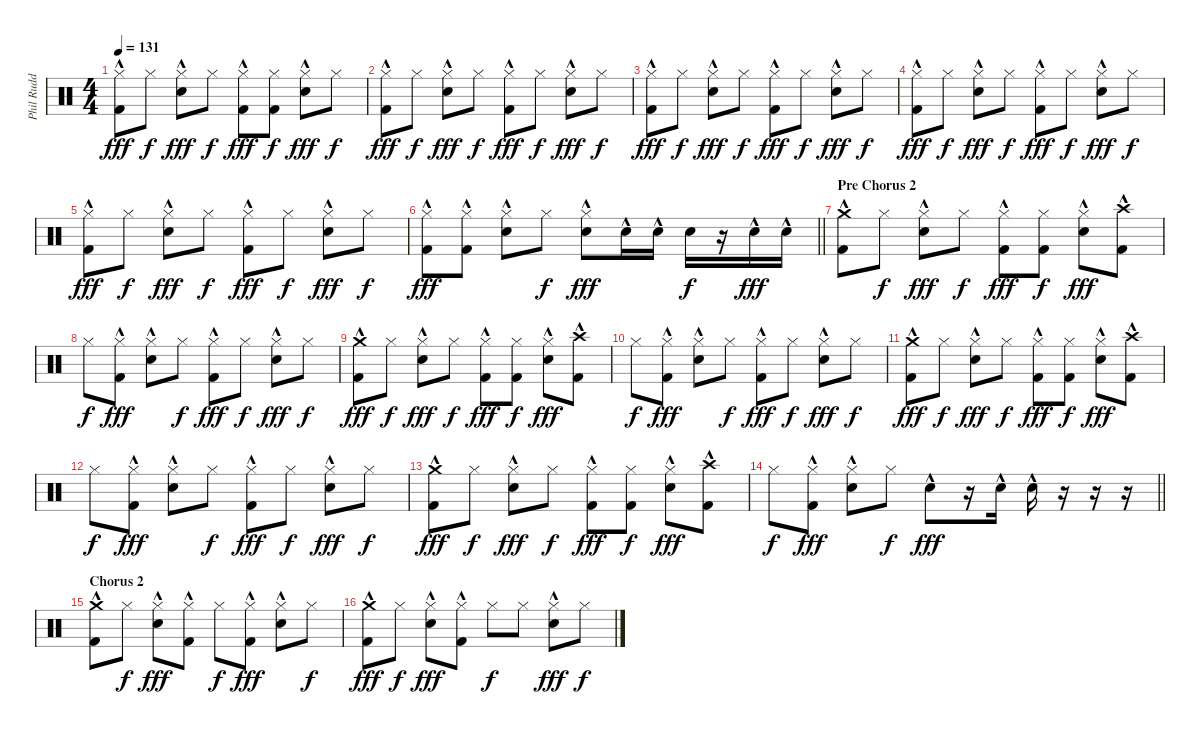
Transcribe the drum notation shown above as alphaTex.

\track ("Phil Rudd" "Phil Rudd") {instrument percussion}
\staff {score}
\articulation defaults
\ts (4 4)
\tempo 131
\clef neutral
\ks c
("Hi-Hat (closed)" "Kick (hit) 2"{hac}).8{dy fff} "Hi-Hat (closed)".8{dy f} ("Hi-Hat (closed)" "Electric Snare (hit)"{hac}).8{dy fff} "Hi-Hat (closed)".8{dy f} ("Hi-Hat (closed)" "Kick (hit) 2"{hac}).8{dy fff} ("Hi-Hat (closed)" "Kick (hit) 2").8{dy f} ("Hi-Hat (closed)" "Electric Snare (hit)"{hac}).8{dy fff} "Hi-Hat (closed)".8{dy f} |
("Hi-Hat (closed)" "Kick (hit) 2"{hac}).8{dy fff} "Hi-Hat (closed)".8{dy f} ("Hi-Hat (closed)" "Electric Snare (hit)"{hac}).8{dy fff} "Hi-Hat (closed)".8{dy f} ("Hi-Hat (closed)" "Kick (hit) 2"{hac}).8{dy fff} "Hi-Hat (closed)".8{dy f} ("Hi-Hat (closed)" "Electric Snare (hit)"{hac}).8{dy fff} "Hi-Hat (closed)".8{dy f} |
("Hi-Hat (closed)" "Kick (hit) 2"{hac}).8{dy fff} "Hi-Hat (closed)".8{dy f} ("Hi-Hat (closed)" "Electric Snare (hit)"{hac}).8{dy fff} "Hi-Hat (closed)".8{dy f} ("Hi-Hat (closed)" "Kick (hit) 2"{hac}).8{dy fff} "Hi-Hat (closed)".8{dy f} ("Hi-Hat (closed)" "Electric Snare (hit)"{hac}).8{dy fff} "Hi-Hat (closed)".8{dy f} |
("Hi-Hat (closed)" "Kick (hit) 2"{hac}).8{dy fff} "Hi-Hat (closed)".8{dy f} ("Hi-Hat (closed)" "Electric Snare (hit)"{hac}).8{dy fff} "Hi-Hat (closed)".8{dy f} ("Hi-Hat (closed)" "Kick (hit) 2"{hac}).8{dy fff} "Hi-Hat (closed)".8{dy f} ("Hi-Hat (closed)" "Electric Snare (hit)"{hac}).8{dy fff} "Hi-Hat (closed)".8{dy f} |
("Hi-Hat (closed)" "Kick (hit) 2"{hac}).8{dy fff} "Hi-Hat (closed)".8{dy f} ("Hi-Hat (closed)" "Electric Snare (hit)"{hac}).8{dy fff} "Hi-Hat (closed)".8{dy f} ("Hi-Hat (closed)" "Kick (hit) 2"{hac}).8{dy fff} "Hi-Hat (closed)".8{dy f} ("Hi-Hat (closed)" "Electric Snare (hit)"{hac}).8{dy fff} "Hi-Hat (closed)".8{dy f} |
\barLineRight lightlight
("Hi-Hat (closed)" "Kick (hit) 2"{hac}).8{dy fff} ("Hi-Hat (closed)" "Kick (hit) 2"{hac}).8 ("Hi-Hat (closed)" "Electric Snare (hit)"{hac}).8 "Hi-Hat (closed)".8{dy f} ("Hi-Hat (closed)" "Electric Snare (hit)"{hac}).8{dy fff} "Electric Snare (hit)"{hac}.16 "Electric Snare (hit)"{hac}.16 "Electric Snare (hit)".16{dy f} r.16 "Electric Snare (hit)"{hac}.16{dy fff} "Electric Snare (hit)"{hac}.16 |
\section ("" "Pre Chorus 2 ")
("Crash medium (hit)" "Kick (hit) 2"{hac}).8 "Hi-Hat (closed)".8{dy f} ("Hi-Hat (closed)" "Electric Snare (hit)"{hac}).8{dy fff} "Hi-Hat (closed)".8{dy f} ("Hi-Hat (closed)" "Kick (hit) 2"{hac}).8{dy fff} ("Hi-Hat (closed)" "Kick (hit) 2").8{dy f} ("Hi-Hat (closed)" "Electric Snare (hit)"{hac}).8{dy fff} ("Crash high (hit)" "Kick (hit) 2"{hac}).8 |
"Hi-Hat (closed)".8{dy f} ("Hi-Hat (closed)" "Kick (hit) 2"{hac}).8{dy fff} ("Hi-Hat (closed)" "Electric Snare (hit)"{hac}).8 "Hi-Hat (closed)".8{dy f} ("Hi-Hat (closed)" "Kick (hit) 2"{hac}).8{dy fff} "Hi-Hat (closed)".8{dy f} ("Hi-Hat (closed)" "Electric Snare (hit)"{hac}).8{dy fff} "Hi-Hat (closed)".8{dy f} |
("Crash medium (hit)" "Kick (hit) 2"{hac}).8{dy fff} "Hi-Hat (closed)".8{dy f} ("Hi-Hat (closed)" "Electric Snare (hit)"{hac}).8{dy fff} "Hi-Hat (closed)".8{dy f} ("Hi-Hat (closed)" "Kick (hit) 2"{hac}).8{dy fff} ("Hi-Hat (closed)" "Kick (hit) 2").8{dy f} ("Hi-Hat (closed)" "Electric Snare (hit)"{hac}).8{dy fff} ("Crash high (hit)" "Kick (hit) 2"{hac}).8 |
"Hi-Hat (closed)".8{dy f} ("Hi-Hat (closed)" "Kick (hit) 2"{hac}).8{dy fff} ("Hi-Hat (closed)" "Electric Snare (hit)"{hac}).8 "Hi-Hat (closed)".8{dy f} ("Hi-Hat (closed)" "Kick (hit) 2"{hac}).8{dy fff} "Hi-Hat (closed)".8{dy f} ("Hi-Hat (closed)" "Electric Snare (hit)"{hac}).8{dy fff} "Hi-Hat (closed)".8{dy f} |
("Crash medium (hit)" "Kick (hit) 2"{hac}).8{dy fff} "Hi-Hat (closed)".8{dy f} ("Hi-Hat (closed)" "Electric Snare (hit)"{hac}).8{dy fff} "Hi-Hat (closed)".8{dy f} ("Hi-Hat (closed)" "Kick (hit) 2"{hac}).8{dy fff} ("Hi-Hat (closed)" "Kick (hit) 2").8{dy f} ("Hi-Hat (closed)" "Electric Snare (hit)"{hac}).8{dy fff} ("Crash high (hit)" "Kick (hit) 2"{hac}).8 |
"Hi-Hat (closed)".8{dy f} ("Hi-Hat (closed)" "Kick (hit) 2"{hac}).8{dy fff} ("Hi-Hat (closed)" "Electric Snare (hit)"{hac}).8 "Hi-Hat (closed)".8{dy f} ("Hi-Hat (closed)" "Kick (hit) 2"{hac}).8{dy fff} "Hi-Hat (closed)".8{dy f} ("Hi-Hat (closed)" "Electric Snare (hit)"{hac}).8{dy fff} "Hi-Hat (closed)".8{dy f} |
("Crash medium (hit)" "Kick (hit) 2"{hac}).8{dy fff} "Hi-Hat (closed)".8{dy f} ("Hi-Hat (closed)" "Electric Snare (hit)"{hac}).8{dy fff} "Hi-Hat (closed)".8{dy f} ("Hi-Hat (closed)" "Kick (hit) 2"{hac}).8{dy fff} ("Hi-Hat (closed)" "Kick (hit) 2").8{dy f} ("Hi-Hat (closed)" "Electric Snare (hit)"{hac}).8{dy fff} ("Crash high (hit)" "Kick (hit) 2"{hac}).8 |
\barLineRight lightlight "Hi-Hat (closed)".8{dy f}
("Hi-Hat (closed)" "Kick (hit) 2"{hac}).8{dy fff} ("Hi-Hat (closed)" "Electric Snare (hit)"{hac}).8 "Hi-Hat (closed)".8{dy f} "Electric Snare (hit)"{hac}.8{dy fff} r.16 "Electric Snare (hit)"{hac}.16 "Electric Snare (hit)"{hac}.16 r.16 r.16 r.16 |
\section ("" "Chorus 2")
("Crash medium (hit)" "Kick (hit) 2"{hac}).8 "Hi-Hat (closed)".8{dy f} ("Hi-Hat (closed)" "Electric Snare (hit)"{hac}).8{dy fff} ("Hi-Hat (closed)" "Kick (hit) 2"{hac}).8 "Hi-Hat (closed)".8{dy f} ("Hi-Hat (closed)" "Kick (hit) 2"{hac}).8{dy fff} ("Hi-Hat (closed)" "Electric Snare (hit)"{hac}).8 "Hi-Hat (closed)".8{dy f} |
("Crash medium (hit)" "Kick (hit) 2"{hac}).8{dy fff} "Hi-Hat (closed)".8{dy f} ("Hi-Hat (closed)" "Electric Snare (hit)"{hac}).8{dy fff} ("Hi-Hat (closed)" "Kick (hit) 2"{hac}).8 "Hi-Hat (closed)".8{dy f} "Hi-Hat (closed)".8 ("Hi-Hat (closed)" "Electric Snare (hit)"{hac}).8{dy fff} "Hi-Hat (closed)".8{dy f}
